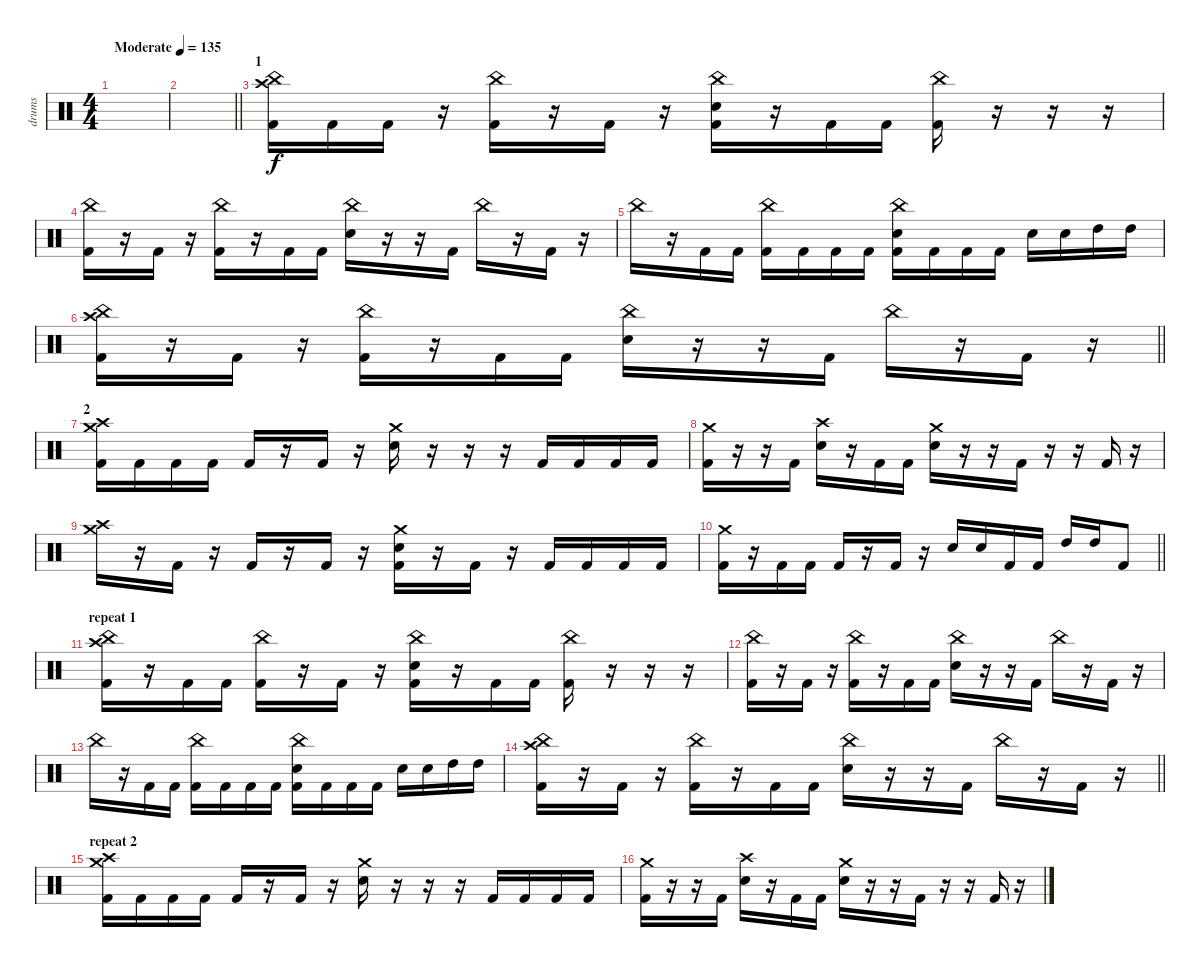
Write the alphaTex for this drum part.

\track ("drums" "drums") {instrument percussion}
\staff {score}
\articulation defaults
\ts (4 4)
\tempo (135 "Moderate")
\clef neutral
\ks c
|
\barLineRight lightlight
|
\section ("" "1")
("China (hit)" "Crash high (hit)" "Kick (hit) 2").16 "Kick (hit) 2".16 "Kick (hit) 2".16 r.16 ("China (hit)" "Kick (hit) 2").16 r.16 "Kick (hit) 2".16 r.16 ("China (hit)" "Electric Snare (hit)" "Kick (hit) 2").16 r.16 "Kick (hit) 2".16 "Kick (hit) 2".16 ("China (hit)" "Kick (hit) 2").16 r.16 r.16 r.16 |
("China (hit)" "Kick (hit) 2").16 r.16 "Kick (hit) 2".16 r.16 ("China (hit)" "Kick (hit) 2").16 r.16 "Kick (hit) 2".16 "Kick (hit) 2".16 ("China (hit)" "Electric Snare (hit)").16 r.16 r.16 "Kick (hit) 2".16 "China (hit)".16 r.16 "Kick (hit) 2".16 r.16 |
"China (hit)".16 r.16 "Kick (hit) 2".16 "Kick (hit) 2".16 ("China (hit)" "Kick (hit) 2").16 "Kick (hit) 2".16 "Kick (hit) 2".16 "Kick (hit) 2".16 ("China (hit)" "Electric Snare (hit)" "Kick (hit) 2").16 "Kick (hit) 2".16 "Kick (hit) 2".16 "Kick (hit) 2".16 "Electric Snare (hit)".16 "Electric Snare (hit)".16 "High Tom (hit)".16 "High Tom (hit)".16 |
\barLineRight lightlight
("China (hit)" "Crash high (hit)" "Kick (hit) 2").16 r.16 "Kick (hit) 2".16 r.16 ("China (hit)" "Kick (hit) 2").16 r.16 "Kick (hit) 2".16 "Kick (hit) 2".16 ("China (hit)" "Electric Snare (hit)").16 r.16 r.16 "Kick (hit) 2".16 "China (hit)".16 r.16 "Kick (hit) 2".16 r.16 |
\section ("" "2")
("Crash medium (hit)" "Crash high (hit)" "Kick (hit) 2").16 "Kick (hit) 2".16 "Kick (hit) 2".16 "Kick (hit) 2".16 "Kick (hit) 2".16 r.16 "Kick (hit) 2".16 r.16 ("Crash medium (hit)" "Electric Snare (hit)").16 r.16 r.16 r.16 "Kick (hit) 2".16 "Kick (hit) 2".16 "Kick (hit) 2".16 "Kick (hit) 2".16 |
("Crash medium (hit)" "Kick (hit) 2").16 r.16 r.16 "Kick (hit) 2".16 ("Crash high (hit)" "Electric Snare (hit)").16 r.16 "Kick (hit) 2".16 "Kick (hit) 2".16 ("Crash medium (hit)" "Electric Snare (hit)").16 r.16 r.16 "Kick (hit) 2".16 r.16 r.16 "Kick (hit) 2".16 r.16 |
("Crash medium (hit)" "Crash high (hit)").16 r.16 "Kick (hit) 2".16 r.16 "Kick (hit) 2".16 r.16 "Kick (hit) 2".16 r.16 ("Crash medium (hit)" "Electric Snare (hit)" "Kick (hit) 2").16 r.16 "Kick (hit) 2".16 r.16 "Kick (hit) 2".16 "Kick (hit) 2".16 "Kick (hit) 2".16 "Kick (hit) 2".16 |
\barLineRight lightlight
("Crash medium (hit)" "Kick (hit) 2").16 r.16 "Kick (hit) 2".16 "Kick (hit) 2".16 "Kick (hit) 2".16 r.16 "Kick (hit) 2".16 r.16 "Electric Snare (hit)".16 "Electric Snare (hit)".16 "Kick (hit) 2".16 "Kick (hit) 2".16 "High Tom (hit)".16 "High Tom (hit)".16 "Kick (hit) 2".8 |
\section ("" "repeat 1")
("China (hit)" "Crash high (hit)" "Kick (hit) 2").16 r.16 "Kick (hit) 2".16 "Kick (hit) 2".16 ("China (hit)" "Kick (hit) 2").16 r.16 "Kick (hit) 2".16 r.16 ("China (hit)" "Electric Snare (hit)" "Kick (hit) 2").16 r.16 "Kick (hit) 2".16 "Kick (hit) 2".16 ("China (hit)" "Kick (hit) 2").16 r.16 r.16 r.16 |
("China (hit)" "Kick (hit) 2").16 r.16 "Kick (hit) 2".16 r.16 ("China (hit)" "Kick (hit) 2").16 r.16 "Kick (hit) 2".16 "Kick (hit) 2".16 ("China (hit)" "Electric Snare (hit)").16 r.16 r.16 "Kick (hit) 2".16 "China (hit)".16 r.16 "Kick (hit) 2".16 r.16 |
"China (hit)".16 r.16 "Kick (hit) 2".16 "Kick (hit) 2".16 ("China (hit)" "Kick (hit) 2").16 "Kick (hit) 2".16 "Kick (hit) 2".16 "Kick (hit) 2".16 ("China (hit)" "Electric Snare (hit)" "Kick (hit) 2").16 "Kick (hit) 2".16 "Kick (hit) 2".16 "Kick (hit) 2".16 "Electric Snare (hit)".16 "Electric Snare (hit)".16 "High Tom (hit)".16 "High Tom (hit)".16 |
\barLineRight lightlight
("China (hit)" "Crash high (hit)" "Kick (hit) 2").16 r.16 "Kick (hit) 2".16 r.16 ("China (hit)" "Kick (hit) 2").16 r.16 "Kick (hit) 2".16 "Kick (hit) 2".16 ("China (hit)" "Electric Snare (hit)").16 r.16 r.16 "Kick (hit) 2".16 "China (hit)".16 r.16 "Kick (hit) 2".16 r.16 |
\section ("" "repeat 2")
("Crash medium (hit)" "Crash high (hit)" "Kick (hit) 2").16 "Kick (hit) 2".16 "Kick (hit) 2".16 "Kick (hit) 2".16 "Kick (hit) 2".16 r.16 "Kick (hit) 2".16 r.16 ("Crash medium (hit)" "Electric Snare (hit)").16 r.16 r.16 r.16 "Kick (hit) 2".16 "Kick (hit) 2".16 "Kick (hit) 2".16 "Kick (hit) 2".16 |
("Crash medium (hit)" "Kick (hit) 2").16 r.16 r.16 "Kick (hit) 2".16 ("Crash high (hit)" "Electric Snare (hit)").16 r.16 "Kick (hit) 2".16 "Kick (hit) 2".16 ("Crash medium (hit)" "Electric Snare (hit)").16 r.16 r.16 "Kick (hit) 2".16 r.16 r.16 "Kick (hit) 2".16 r.16
